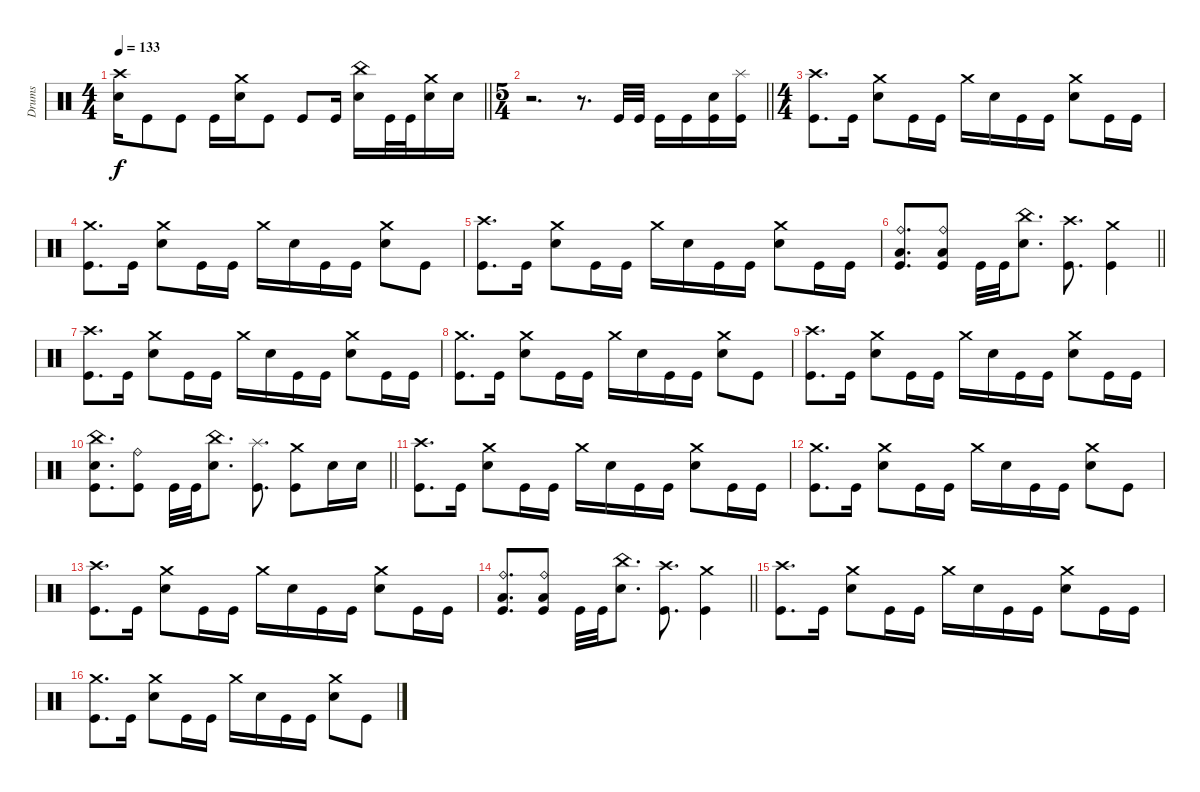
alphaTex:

\track ("Drums" "Drums") {instrument percussion}
\staff
\articulation defaults
\ts (4 4)
\tempo 133
\clef neutral
\barLineRight lightlight
\ks c
("Crash high (hit)" "Electric Snare (hit)").16{dy f} "Kick (hit)".8 "Kick (hit)".8 "Kick (hit)".16 ("Crash medium (hit)" "Electric Snare (hit)").16 "Kick (hit)".8 "Kick (hit)".8 "Kick (hit)".16 ("China (hit)" "Electric Snare (hit)").16 "Kick (hit)".32 "Kick (hit)".32 ("Crash medium (hit)" "Electric Snare (hit)").16 "Electric Snare (hit)".16 |
\ts (5 4)
\barLineRight lightlight
r.2{d} r.8{d} "Kick (hit)".32 "Kick (hit)".32 "Kick (hit)".16 "Kick (hit)".16 ("Electric Snare (hit)" "Kick (hit)").16 ("Splash (hit)" "Kick (hit)").16 |
\ts (4 4)
\section ("" "")
("Crash high (hit)" "Kick (hit)").8{d} "Kick (hit)".16 ("Crash medium (hit)" "Electric Snare (hit)").8 "Kick (hit)".16 "Kick (hit)".16 "Crash medium (hit)".16 "Electric Snare (hit)".16 "Kick (hit)".16 "Kick (hit)".16 ("Crash medium (hit)" "Electric Snare (hit)").8 "Kick (hit)".16 "Kick (hit)".16 |
("Crash medium (hit)" "Kick (hit)").8{d} "Kick (hit)".16 ("Crash medium (hit)" "Electric Snare (hit)").8 "Kick (hit)".16 "Kick (hit)".16 "Crash medium (hit)".16 "Electric Snare (hit)".16 "Kick (hit)".16 "Kick (hit)".16 ("Crash medium (hit)" "Electric Snare (hit)").8 "Kick (hit)".8 |
("Crash high (hit)" "Kick (hit)").8{d} "Kick (hit)".16 ("Crash medium (hit)" "Electric Snare (hit)").8 "Kick (hit)".16 "Kick (hit)".16 "Crash medium (hit)".16 "Electric Snare (hit)".16 "Kick (hit)".16 "Kick (hit)".16 ("Crash medium (hit)" "Electric Snare (hit)").8 "Kick (hit)".16 "Kick (hit)".16 |
\barLineRight lightlight
("Ride (bell)" "Low Floor Tom (hit)" "Kick (hit)").8{d} ("Ride (bell)" "Low Floor Tom (hit)" "Kick (hit)").8 "Kick (hit)".32 "Kick (hit)".32 ("China (hit)" "Electric Snare (hit)").8{d} ("Crash high (hit)" "Kick (hit)").8{d} ("Crash medium (hit)" "Kick (hit)").4 |
("Crash high (hit)" "Kick (hit)").8{d} "Kick (hit)".16 ("Crash medium (hit)" "Electric Snare (hit)").8 "Kick (hit)".16 "Kick (hit)".16 "Crash medium (hit)".16 "Electric Snare (hit)".16 "Kick (hit)".16 "Kick (hit)".16 ("Crash medium (hit)" "Electric Snare (hit)").8 "Kick (hit)".16 "Kick (hit)".16 |
("Crash medium (hit)" "Kick (hit)").8{d} "Kick (hit)".16 ("Crash medium (hit)" "Electric Snare (hit)").8 "Kick (hit)".16 "Kick (hit)".16 "Crash medium (hit)".16 "Electric Snare (hit)".16 "Kick (hit)".16 "Kick (hit)".16 ("Crash medium (hit)" "Electric Snare (hit)").8 "Kick (hit)".8 |
("Crash high (hit)" "Kick (hit)").8{d} "Kick (hit)".16 ("Crash medium (hit)" "Electric Snare (hit)").8 "Kick (hit)".16 "Kick (hit)".16 "Crash medium (hit)".16 "Electric Snare (hit)".16 "Kick (hit)".16 "Kick (hit)".16 ("Crash medium (hit)" "Electric Snare (hit)").8 "Kick (hit)".16 "Kick (hit)".16 |
\barLineRight lightlight
("China (hit)" "Electric Snare (hit)" "Kick (hit)").8{d} ("Ride (bell)" "Kick (hit)").8 "Kick (hit)".32 "Kick (hit)".32 ("China (hit)" "Electric Snare (hit)").8{d} ("Splash (hit)" "Kick (hit)").8{d} ("Crash medium (hit)" "Kick (hit)").8 "Electric Snare (hit)".16 "Electric Snare (hit)".16 |
("Crash high (hit)" "Kick (hit)").8{d} "Kick (hit)".16 ("Crash medium (hit)" "Electric Snare (hit)").8 "Kick (hit)".16 "Kick (hit)".16 "Crash medium (hit)".16 "Electric Snare (hit)".16 "Kick (hit)".16 "Kick (hit)".16 ("Crash medium (hit)" "Electric Snare (hit)").8 "Kick (hit)".16 "Kick (hit)".16 |
("Crash medium (hit)" "Kick (hit)").8{d} "Kick (hit)".16 ("Crash medium (hit)" "Electric Snare (hit)").8 "Kick (hit)".16 "Kick (hit)".16 "Crash medium (hit)".16 "Electric Snare (hit)".16 "Kick (hit)".16 "Kick (hit)".16 ("Crash medium (hit)" "Electric Snare (hit)").8 "Kick (hit)".8 |
("Crash high (hit)" "Kick (hit)").8{d} "Kick (hit)".16 ("Crash medium (hit)" "Electric Snare (hit)").8 "Kick (hit)".16 "Kick (hit)".16 "Crash medium (hit)".16 "Electric Snare (hit)".16 "Kick (hit)".16 "Kick (hit)".16 ("Crash medium (hit)" "Electric Snare (hit)").8 "Kick (hit)".16 "Kick (hit)".16 |
\barLineRight lightlight
("Ride (bell)" "Low Floor Tom (hit)" "Kick (hit)").8{d} ("Ride (bell)" "Low Floor Tom (hit)" "Kick (hit)").8 "Kick (hit)".32 "Kick (hit)".32 ("China (hit)" "Electric Snare (hit)").8{d} ("Crash high (hit)" "Kick (hit)").8{d} ("Crash medium (hit)" "Kick (hit)").4 |
("Crash high (hit)" "Kick (hit)").8{d} "Kick (hit)".16 ("Crash medium (hit)" "Electric Snare (hit)").8 "Kick (hit)".16 "Kick (hit)".16 "Crash medium (hit)".16 "Electric Snare (hit)".16 "Kick (hit)".16 "Kick (hit)".16 ("Crash medium (hit)" "Electric Snare (hit)").8 "Kick (hit)".16 "Kick (hit)".16 |
("Crash medium (hit)" "Kick (hit)").8{d} "Kick (hit)".16 ("Crash medium (hit)" "Electric Snare (hit)").8 "Kick (hit)".16 "Kick (hit)".16 "Crash medium (hit)".16 "Electric Snare (hit)".16 "Kick (hit)".16 "Kick (hit)".16 ("Crash medium (hit)" "Electric Snare (hit)").8 "Kick (hit)".8
